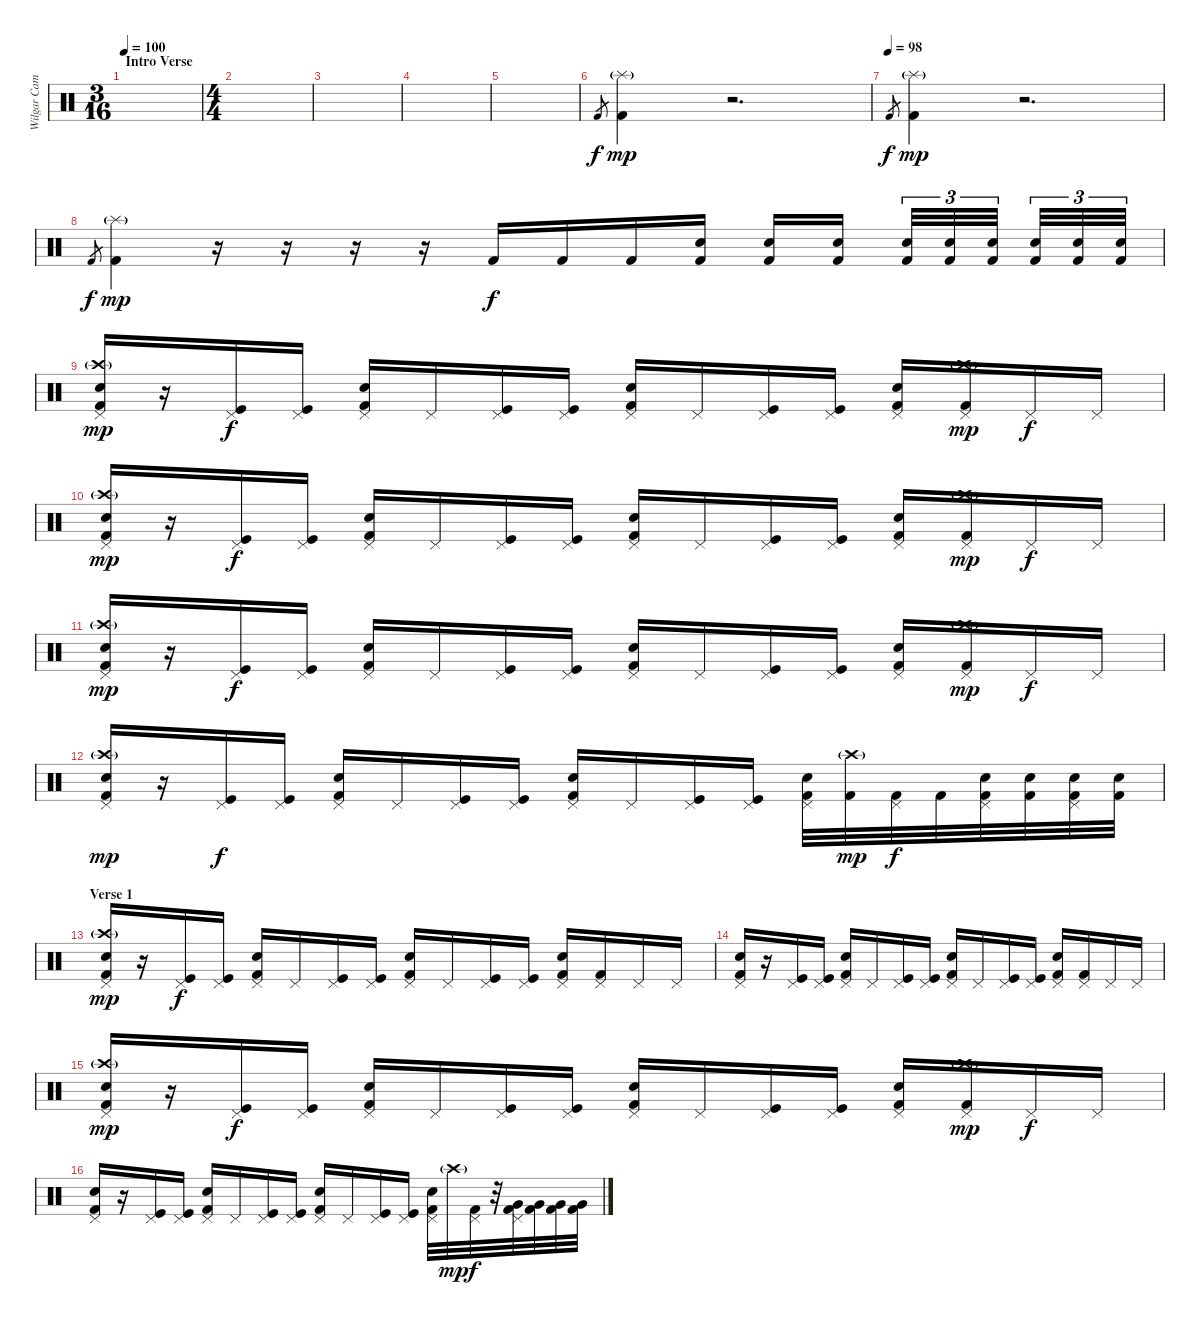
\track ("Wilgar Campbell" "Wilgar Cam") {instrument percussion}
\staff {score}
\articulation defaults
\ts (3 16)
\section ("" "Intro Verse")
\tempo 100
\clef neutral
\ks c
|
\ts (4 4)
|
|
|
|
"Kick (hit) 2"{sl}.8{gr} ("Splash (hit)"{g} "Kick (hit) 2").4{dy mp} r.2{d} |
\tempo (98)
"Kick (hit) 2"{sl}.8{gr dy f} ("Splash (hit)"{g} "Kick (hit) 2").4{dy mp} r.2{d} |
"Kick (hit) 2".8{gr dy f} ("Splash (hit)"{g} "Kick (hit) 2").4{dy mp} r.16{volume 3} r.16{volume 10} r.16 r.16 "Kick (hit) 2".16{dy f} "Kick (hit) 2".16 "Kick (hit) 2".16 ("Snare (hit) 2" "Kick (hit) 2").16 ("Snare (hit) 2" "Kick (hit) 2").16 ("Snare (hit) 2" "Kick (hit) 2").16 ("Snare (hit) 2" "Kick (hit) 2").32{tu (3 2)} ("Snare (hit) 2" "Kick (hit) 2").32{tu (3 2)} ("Snare (hit) 2" "Kick (hit) 2").32{tu (3 2)} ("Snare (hit) 2" "Kick (hit) 2").32{tu (3 2)} ("Snare (hit) 2" "Kick (hit) 2").32{tu (3 2)} ("Snare (hit) 2" "Kick (hit) 2").32{tu (3 2)} |
("Crash high (hit)"{g} "Snare (hit) 2" "Pedal Hi-Hat (hit)" "Kick (hit) 2").16{dy mp} r.16 ("Pedal Hi-Hat (hit)" "Kick (hit)").16{dy f} ("Pedal Hi-Hat (hit)" "Kick (hit)").16 ("Snare (hit) 2" "Pedal Hi-Hat (hit)" "Kick (hit) 2").16 "Pedal Hi-Hat (hit)".16 ("Pedal Hi-Hat (hit)" "Kick (hit)").16 ("Pedal Hi-Hat (hit)" "Kick (hit)").16 ("Snare (hit) 2" "Pedal Hi-Hat (hit)" "Kick (hit) 2").16 "Pedal Hi-Hat (hit)".16 ("Pedal Hi-Hat (hit)" "Kick (hit)").16 ("Pedal Hi-Hat (hit)" "Kick (hit)").16 ("Snare (hit) 2" "Pedal Hi-Hat (hit)" "Kick (hit) 2").16 ("Crash high (hit)"{g} "Pedal Hi-Hat (hit)" "Kick (hit) 2").16{dy mp} "Pedal Hi-Hat (hit)".16{dy f} "Pedal Hi-Hat (hit)".16 |
("Crash high (hit)"{g} "Snare (hit) 2" "Pedal Hi-Hat (hit)" "Kick (hit) 2").16{dy mp} r.16 ("Pedal Hi-Hat (hit)" "Kick (hit)").16{dy f} ("Pedal Hi-Hat (hit)" "Kick (hit)").16 ("Snare (hit) 2" "Pedal Hi-Hat (hit)" "Kick (hit) 2").16 "Pedal Hi-Hat (hit)".16 ("Pedal Hi-Hat (hit)" "Kick (hit)").16 ("Pedal Hi-Hat (hit)" "Kick (hit)").16 ("Snare (hit) 2" "Pedal Hi-Hat (hit)" "Kick (hit) 2").16 "Pedal Hi-Hat (hit)".16 ("Pedal Hi-Hat (hit)" "Kick (hit)").16 ("Pedal Hi-Hat (hit)" "Kick (hit)").16 ("Snare (hit) 2" "Pedal Hi-Hat (hit)" "Kick (hit) 2").16 ("Crash high (hit)"{g} "Pedal Hi-Hat (hit)" "Kick (hit) 2").16{dy mp} "Pedal Hi-Hat (hit)".16{dy f} "Pedal Hi-Hat (hit)".16 |
("Crash high (hit)"{g} "Snare (hit) 2" "Pedal Hi-Hat (hit)" "Kick (hit) 2").16{dy mp} r.16 ("Pedal Hi-Hat (hit)" "Kick (hit)").16{dy f} ("Pedal Hi-Hat (hit)" "Kick (hit)").16 ("Snare (hit) 2" "Pedal Hi-Hat (hit)" "Kick (hit) 2").16 "Pedal Hi-Hat (hit)".16 ("Pedal Hi-Hat (hit)" "Kick (hit)").16 ("Pedal Hi-Hat (hit)" "Kick (hit)").16 ("Snare (hit) 2" "Pedal Hi-Hat (hit)" "Kick (hit) 2").16 "Pedal Hi-Hat (hit)".16 ("Pedal Hi-Hat (hit)" "Kick (hit)").16 ("Pedal Hi-Hat (hit)" "Kick (hit)").16 ("Snare (hit) 2" "Pedal Hi-Hat (hit)" "Kick (hit) 2").16 ("Crash high (hit)"{g} "Pedal Hi-Hat (hit)" "Kick (hit) 2").16{dy mp} "Pedal Hi-Hat (hit)".16{dy f} "Pedal Hi-Hat (hit)".16 |
("Crash high (hit)"{g} "Snare (hit) 2" "Pedal Hi-Hat (hit)" "Kick (hit) 2").16{dy mp} r.16 ("Pedal Hi-Hat (hit)" "Kick (hit)").16{dy f} ("Pedal Hi-Hat (hit)" "Kick (hit)").16 ("Snare (hit) 2" "Pedal Hi-Hat (hit)" "Kick (hit) 2").16 "Pedal Hi-Hat (hit)".16 ("Pedal Hi-Hat (hit)" "Kick (hit)").16 ("Pedal Hi-Hat (hit)" "Kick (hit)").16 ("Snare (hit) 2" "Pedal Hi-Hat (hit)" "Kick (hit) 2").16 "Pedal Hi-Hat (hit)".16 ("Pedal Hi-Hat (hit)" "Kick (hit)").16 ("Pedal Hi-Hat (hit)" "Kick (hit)").16 ("Snare (hit) 2" "Pedal Hi-Hat (hit)" "Kick (hit) 2").32 ("Crash high (hit)"{g} "Kick (hit) 2").32{dy mp} ("Pedal Hi-Hat (hit)" "Kick (hit) 2").32{dy f} "Kick (hit) 2".32 ("Pedal Hi-Hat (hit)" "Snare (hit) 2" "Kick (hit) 2").32 ("Snare (hit) 2" "Kick (hit) 2").32 ("Pedal Hi-Hat (hit)" "Snare (hit) 2" "Kick (hit) 2").32 ("Snare (hit) 2" "Kick (hit) 2").32 |
\section ("" "Verse 1")
("Crash high (hit)"{g} "Snare (hit) 2" "Pedal Hi-Hat (hit)" "Kick (hit) 2").16{dy mp} r.16 ("Pedal Hi-Hat (hit)" "Kick (hit)").16{dy f} ("Pedal Hi-Hat (hit)" "Kick (hit)").16 ("Snare (hit) 2" "Pedal Hi-Hat (hit)" "Kick (hit) 2").16 "Pedal Hi-Hat (hit)".16 ("Pedal Hi-Hat (hit)" "Kick (hit)").16 ("Pedal Hi-Hat (hit)" "Kick (hit)").16 ("Snare (hit) 2" "Pedal Hi-Hat (hit)" "Kick (hit) 2").16 "Pedal Hi-Hat (hit)".16 ("Pedal Hi-Hat (hit)" "Kick (hit)").16 ("Pedal Hi-Hat (hit)" "Kick (hit)").16 ("Snare (hit) 2" "Pedal Hi-Hat (hit)" "Kick (hit) 2").16 ("Pedal Hi-Hat (hit)" "Kick (hit) 2").16 "Pedal Hi-Hat (hit)".16 "Pedal Hi-Hat (hit)".16 |
("Snare (hit) 2" "Pedal Hi-Hat (hit)" "Kick (hit) 2").16 r.16 ("Pedal Hi-Hat (hit)" "Kick (hit)").16 ("Pedal Hi-Hat (hit)" "Kick (hit)").16 ("Snare (hit) 2" "Pedal Hi-Hat (hit)" "Kick (hit) 2").16 "Pedal Hi-Hat (hit)".16 ("Pedal Hi-Hat (hit)" "Kick (hit)").16 ("Pedal Hi-Hat (hit)" "Kick (hit)").16 ("Snare (hit) 2" "Pedal Hi-Hat (hit)" "Kick (hit) 2").16 "Pedal Hi-Hat (hit)".16 ("Pedal Hi-Hat (hit)" "Kick (hit)").16 ("Pedal Hi-Hat (hit)" "Kick (hit)").16 ("Snare (hit) 2" "Pedal Hi-Hat (hit)" "Kick (hit) 2").16 ("Pedal Hi-Hat (hit)" "Kick (hit) 2").16 "Pedal Hi-Hat (hit)".16 "Pedal Hi-Hat (hit)".16 |
("Crash high (hit)"{g} "Snare (hit) 2" "Pedal Hi-Hat (hit)" "Kick (hit) 2").16{dy mp} r.16 ("Pedal Hi-Hat (hit)" "Kick (hit)").16{dy f} ("Pedal Hi-Hat (hit)" "Kick (hit)").16 ("Snare (hit) 2" "Pedal Hi-Hat (hit)" "Kick (hit) 2").16 "Pedal Hi-Hat (hit)".16 ("Pedal Hi-Hat (hit)" "Kick (hit)").16 ("Pedal Hi-Hat (hit)" "Kick (hit)").16 ("Snare (hit) 2" "Pedal Hi-Hat (hit)" "Kick (hit) 2").16 "Pedal Hi-Hat (hit)".16 ("Pedal Hi-Hat (hit)" "Kick (hit)").16 ("Pedal Hi-Hat (hit)" "Kick (hit)").16 ("Snare (hit) 2" "Pedal Hi-Hat (hit)" "Kick (hit) 2").16 ("Crash high (hit)"{g} "Pedal Hi-Hat (hit)" "Kick (hit) 2").16{dy mp} "Pedal Hi-Hat (hit)".16{dy f} "Pedal Hi-Hat (hit)".16 |
("Snare (hit) 2" "Pedal Hi-Hat (hit)" "Kick (hit) 2").16 r.16 ("Pedal Hi-Hat (hit)" "Kick (hit)").16 ("Pedal Hi-Hat (hit)" "Kick (hit)").16 ("Snare (hit) 2" "Pedal Hi-Hat (hit)" "Kick (hit) 2").16 "Pedal Hi-Hat (hit)".16 ("Pedal Hi-Hat (hit)" "Kick (hit)").16 ("Pedal Hi-Hat (hit)" "Kick (hit)").16 ("Snare (hit) 2" "Pedal Hi-Hat (hit)" "Kick (hit) 2").16 "Pedal Hi-Hat (hit)".16 ("Pedal Hi-Hat (hit)" "Kick (hit)").16 ("Pedal Hi-Hat (hit)" "Kick (hit)").16 ("Snare (hit) 2" "Pedal Hi-Hat (hit)" "Kick (hit) 2").32 "Crash high (hit)"{g}.32{dy mp} ("Pedal Hi-Hat (hit)" "Kick (hit) 2").32{dy f} r.32 ("Pedal Hi-Hat (hit)" "Very Low Tom (hit)" "Kick (hit) 2").32 ("Very Low Tom (hit)" "Kick (hit) 2").32 ("Very Low Tom (hit)" "Kick (hit) 2").32 ("Very Low Tom (hit)" "Kick (hit) 2").32
